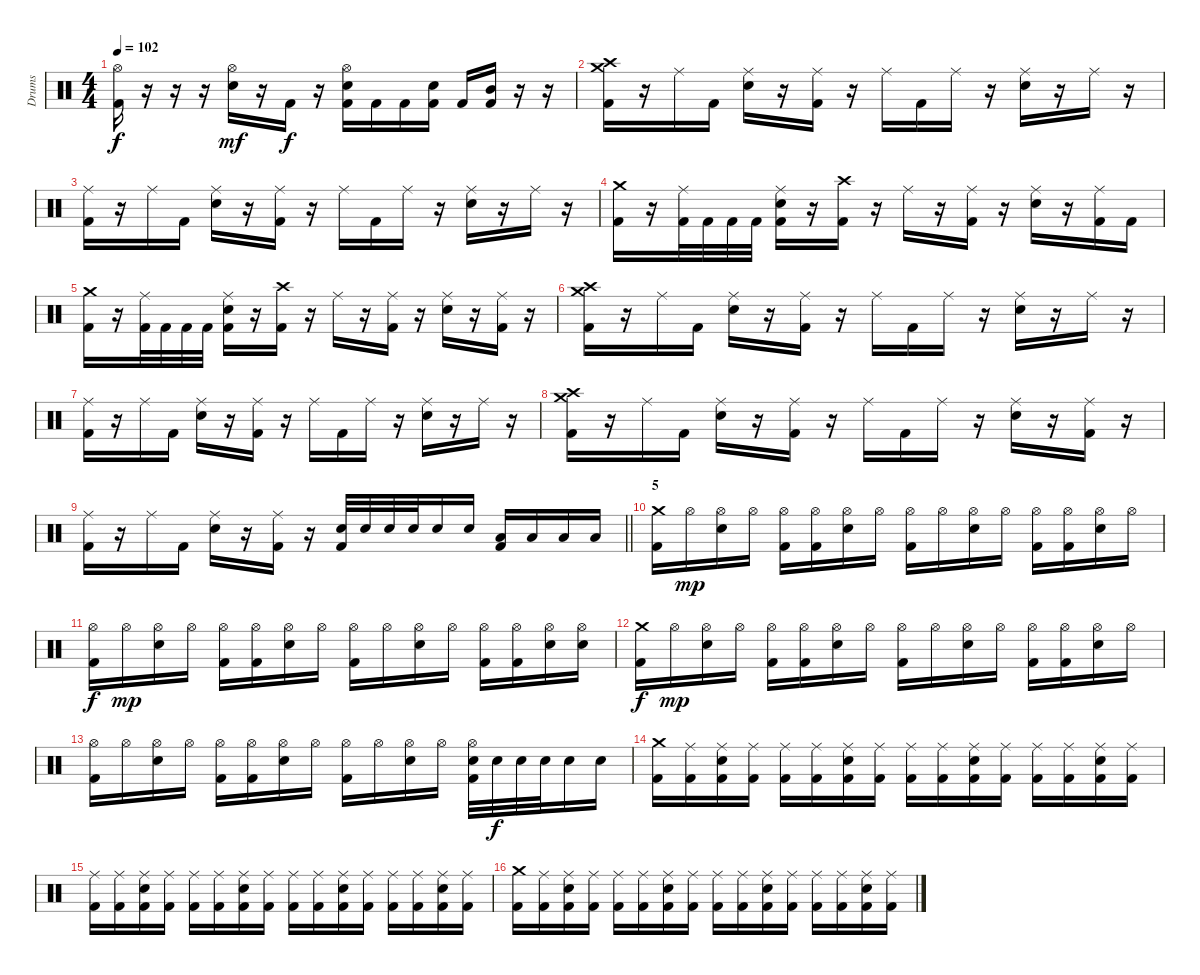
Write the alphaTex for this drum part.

\track ("Drums" "Drums") {instrument percussion}
\staff {score}
\articulation defaults
\ts (4 4)
\tempo 102
\clef neutral
\ks c
("Hi-Hat (open)" "Kick (hit) 2").16{dy f} r.16 r.16 r.16 ("Hi-Hat (open)" "Snare (hit) 2").16{dy mf} r.16 "Kick (hit) 2".16{dy f} r.16 ("Hi-Hat (open)" "Snare (hit) 2" "Kick (hit) 2").16 "Kick (hit) 2".16 "Kick (hit) 2".16 ("Snare (hit) 2" "Kick (hit) 2").16 "Kick (hit) 2".16 ("Mid Tom (hit)" "Kick (hit) 2").16 r.16 r.16 |
("Crash medium (hit)" "Crash high (hit)" "Kick (hit) 2").16 r.16 "Ride (middle)".16 "Kick (hit) 2".16 ("Ride (middle)" "Snare (hit) 2").16 r.16 ("Ride (middle)" "Kick (hit) 2").16 r.16 "Ride (middle)".16 "Kick (hit) 2".16 "Ride (middle)".16 r.16 ("Ride (middle)" "Snare (hit) 2").16 r.16 "Ride (middle)".16 r.16 |
("Ride (middle)" "Kick (hit) 2").16 r.16 "Ride (middle)".16 "Kick (hit) 2".16 ("Ride (middle)" "Snare (hit) 2").16 r.16 ("Ride (middle)" "Kick (hit) 2").16 r.16 "Ride (middle)".16 "Kick (hit) 2".16 "Ride (middle)".16 r.16 ("Ride (middle)" "Snare (hit) 2").16 r.16 "Ride (middle)".16 r.16 |
("Crash medium (hit)" "Kick (hit) 2").16 r.16 ("Ride (middle)" "Kick (hit) 2").32 "Kick (hit) 2".32 "Kick (hit) 2".32 "Kick (hit) 2".32 ("Ride (middle)" "Snare (hit) 2" "Kick (hit) 2").16 r.16 ("Crash high (hit)" "Kick (hit) 2").16 r.16 "Ride (middle)".16 r.16 ("Ride (middle)" "Kick (hit) 2").16 r.16 ("Ride (middle)" "Snare (hit) 2").16 r.16 ("Ride (middle)" "Kick (hit) 2").16 "Kick (hit) 2".16 |
("Crash medium (hit)" "Kick (hit) 2").16 r.16 ("Ride (middle)" "Kick (hit) 2").32 "Kick (hit) 2".32 "Kick (hit) 2".32 "Kick (hit) 2".32 ("Ride (middle)" "Snare (hit) 2" "Kick (hit) 2").16 r.16 ("Crash high (hit)" "Kick (hit) 2").16 r.16 "Ride (middle)".16 r.16 ("Ride (middle)" "Kick (hit) 2").16 r.16 ("Ride (middle)" "Snare (hit) 2").16 r.16 ("Ride (middle)" "Kick (hit) 2").16 r.16 |
("Crash medium (hit)" "Crash high (hit)" "Kick (hit) 2").16 r.16 "Ride (middle)".16 "Kick (hit) 2".16 ("Ride (middle)" "Snare (hit) 2").16 r.16 ("Ride (middle)" "Kick (hit) 2").16 r.16 "Ride (middle)".16 "Kick (hit) 2".16 "Ride (middle)".16 r.16 ("Ride (middle)" "Snare (hit) 2").16 r.16 "Ride (middle)".16 r.16 |
("Ride (middle)" "Kick (hit) 2").16 r.16 "Ride (middle)".16 "Kick (hit) 2".16 ("Ride (middle)" "Snare (hit) 2").16 r.16 ("Ride (middle)" "Kick (hit) 2").16 r.16 "Ride (middle)".16 "Kick (hit) 2".16 "Ride (middle)".16 r.16 ("Ride (middle)" "Snare (hit) 2").16 r.16 "Ride (middle)".16 r.16 |
("Crash medium (hit)" "Crash high (hit)" "Kick (hit) 2").16 r.16 "Ride (middle)".16 "Kick (hit) 2".16 ("Ride (middle)" "Snare (hit) 2").16 r.16 ("Ride (middle)" "Kick (hit) 2").16 r.16 "Ride (middle)".16 "Kick (hit) 2".16 "Ride (middle)".16 r.16 ("Ride (middle)" "Snare (hit) 2").16 r.16 ("Ride (middle)" "Kick (hit) 2").16 r.16 |
\barLineRight lightlight
("Ride (middle)" "Kick (hit) 2").16 r.16 "Ride (middle)".16 "Kick (hit) 2".16 ("Ride (middle)" "Snare (hit) 2").16 r.16 ("Ride (middle)" "Kick (hit) 2").16 r.16 ("Snare (hit) 2" "Kick (hit) 2").32 "Snare (hit) 2".32 "Snare (hit) 2".32 "Snare (hit) 2".32 "Snare (hit) 2".16 "Snare (hit) 2".16 ("Low Tom (hit)" "Kick (hit) 2").16 "Low Tom (hit)".16 "Low Tom (hit)".16 "Low Tom (hit)".16 |
\section ("" "5")
("Crash medium (hit)" "Kick (hit) 2").16 "Hi-Hat (open)".16{dy mp} ("Hi-Hat (open)" "Snare (hit) 2").16 "Hi-Hat (open)".16 ("Hi-Hat (open)" "Kick (hit) 2").16 ("Hi-Hat (open)" "Kick (hit) 2").16 ("Hi-Hat (open)" "Snare (hit) 2").16 "Hi-Hat (open)".16 ("Hi-Hat (open)" "Kick (hit) 2").16 "Hi-Hat (open)".16 ("Hi-Hat (open)" "Snare (hit) 2").16 "Hi-Hat (open)".16 ("Hi-Hat (open)" "Kick (hit) 2").16 ("Hi-Hat (open)" "Kick (hit) 2").16 ("Hi-Hat (open)" "Snare (hit) 2").16 "Hi-Hat (open)".16 |
("Hi-Hat (open)" "Kick (hit) 2").16{dy f} "Hi-Hat (open)".16{dy mp} ("Hi-Hat (open)" "Snare (hit) 2").16 "Hi-Hat (open)".16 ("Hi-Hat (open)" "Kick (hit) 2").16 ("Hi-Hat (open)" "Kick (hit) 2").16 ("Hi-Hat (open)" "Snare (hit) 2").16 "Hi-Hat (open)".16 ("Hi-Hat (open)" "Kick (hit) 2").16 "Hi-Hat (open)".16 ("Hi-Hat (open)" "Snare (hit) 2").16 "Hi-Hat (open)".16 ("Hi-Hat (open)" "Kick (hit) 2").16 ("Hi-Hat (open)" "Kick (hit) 2").16 ("Hi-Hat (open)" "Snare (hit) 2").16 ("Hi-Hat (open)" "Snare (hit) 2").16 |
("Crash medium (hit)" "Kick (hit) 2").16{dy f} "Hi-Hat (open)".16{dy mp} ("Hi-Hat (open)" "Snare (hit) 2").16 "Hi-Hat (open)".16 ("Hi-Hat (open)" "Kick (hit) 2").16 ("Hi-Hat (open)" "Kick (hit) 2").16 ("Hi-Hat (open)" "Snare (hit) 2").16 "Hi-Hat (open)".16 ("Hi-Hat (open)" "Kick (hit) 2").16 "Hi-Hat (open)".16 ("Hi-Hat (open)" "Snare (hit) 2").16 "Hi-Hat (open)".16 ("Hi-Hat (open)" "Kick (hit) 2").16 ("Hi-Hat (open)" "Kick (hit) 2").16 ("Hi-Hat (open)" "Snare (hit) 2").16 "Hi-Hat (open)".16 |
("Hi-Hat (open)" "Kick (hit) 2").16 "Hi-Hat (open)".16 ("Hi-Hat (open)" "Snare (hit) 2").16 "Hi-Hat (open)".16 ("Hi-Hat (open)" "Kick (hit) 2").16 ("Hi-Hat (open)" "Kick (hit) 2").16 ("Hi-Hat (open)" "Snare (hit) 2").16 "Hi-Hat (open)".16 ("Hi-Hat (open)" "Kick (hit) 2").16 "Hi-Hat (open)".16 ("Hi-Hat (open)" "Snare (hit) 2").16 "Hi-Hat (open)".16 ("Hi-Hat (open)" "Snare (hit) 2" "Kick (hit) 2").32 "Snare (hit) 2".32{dy f} "Snare (hit) 2".32 "Snare (hit) 2".32 "Snare (hit) 2".16 "Snare (hit) 2".16 |
("Crash medium (hit)" "Kick (hit) 2").16 ("Ride (middle)" "Kick (hit) 2").16 ("Ride (middle)" "Snare (hit) 2" "Kick (hit) 2").16 ("Ride (middle)" "Kick (hit) 2").16 ("Ride (middle)" "Kick (hit) 2").16 ("Ride (middle)" "Kick (hit) 2").16 ("Ride (middle)" "Snare (hit) 2" "Kick (hit) 2").16 ("Ride (middle)" "Kick (hit) 2").16 ("Ride (middle)" "Kick (hit) 2").16 ("Ride (middle)" "Kick (hit) 2").16 ("Ride (middle)" "Snare (hit) 2" "Kick (hit) 2").16 ("Ride (middle)" "Kick (hit) 2").16 ("Ride (middle)" "Kick (hit) 2").16 ("Ride (middle)" "Kick (hit) 2").16 ("Ride (middle)" "Snare (hit) 2" "Kick (hit) 2").16 ("Ride (middle)" "Kick (hit) 2").16 |
("Ride (middle)" "Kick (hit) 2").16 ("Ride (middle)" "Kick (hit) 2").16 ("Ride (middle)" "Snare (hit) 2" "Kick (hit) 2").16 ("Ride (middle)" "Kick (hit) 2").16 ("Ride (middle)" "Kick (hit) 2").16 ("Ride (middle)" "Kick (hit) 2").16 ("Ride (middle)" "Snare (hit) 2" "Kick (hit) 2").16 ("Ride (middle)" "Kick (hit) 2").16 ("Ride (middle)" "Kick (hit) 2").16 ("Ride (middle)" "Kick (hit) 2").16 ("Ride (middle)" "Snare (hit) 2" "Kick (hit) 2").16 ("Ride (middle)" "Kick (hit) 2").16 ("Ride (middle)" "Kick (hit) 2").16 ("Ride (middle)" "Kick (hit) 2").16 ("Ride (middle)" "Snare (hit) 2" "Kick (hit) 2").16 ("Ride (middle)" "Kick (hit) 2").16 |
("Crash medium (hit)" "Kick (hit) 2").16 ("Ride (middle)" "Kick (hit) 2").16 ("Ride (middle)" "Snare (hit) 2" "Kick (hit) 2").16 ("Ride (middle)" "Kick (hit) 2").16 ("Ride (middle)" "Kick (hit) 2").16 ("Ride (middle)" "Kick (hit) 2").16 ("Ride (middle)" "Snare (hit) 2" "Kick (hit) 2").16 ("Ride (middle)" "Kick (hit) 2").16 ("Ride (middle)" "Kick (hit) 2").16 ("Ride (middle)" "Kick (hit) 2").16 ("Ride (middle)" "Snare (hit) 2" "Kick (hit) 2").16 ("Ride (middle)" "Kick (hit) 2").16 ("Ride (middle)" "Kick (hit) 2").16 ("Ride (middle)" "Kick (hit) 2").16 ("Ride (middle)" "Snare (hit) 2" "Kick (hit) 2").16 ("Ride (middle)" "Kick (hit) 2").16
